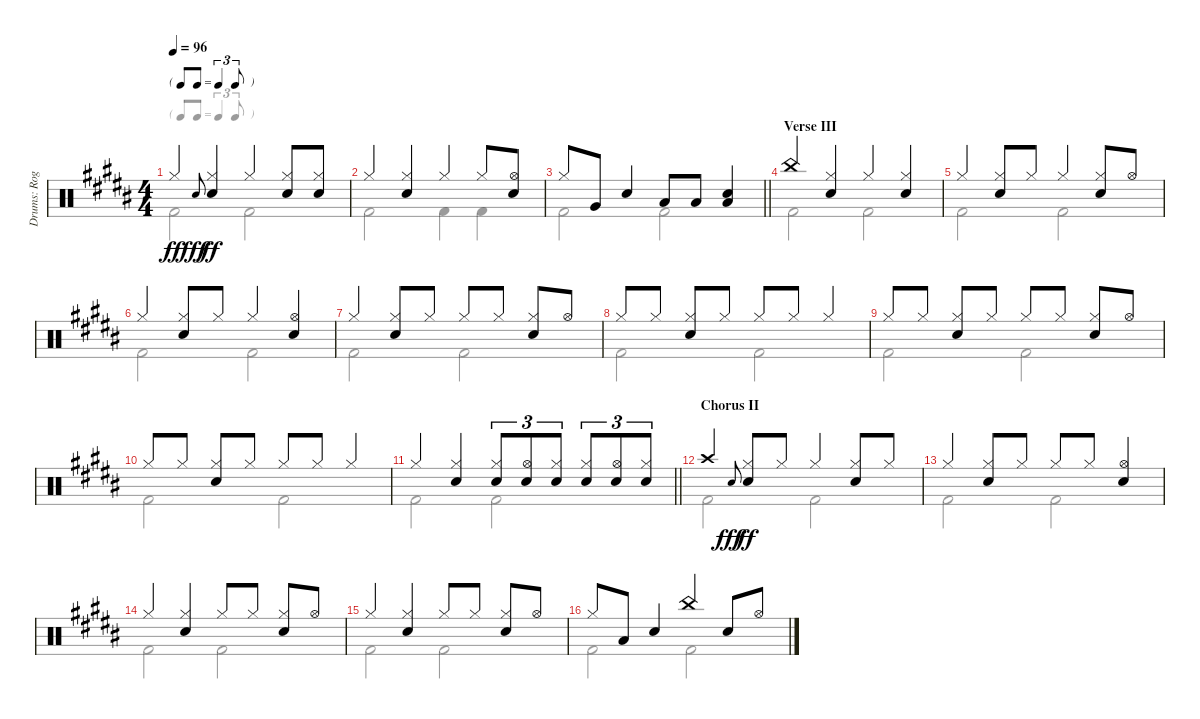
\track ("Drums: Roger" "Drums: Rog") {instrument percussion}
\staff {score}
\articulation defaults
\voice
\ts (4 4)
\tf triplet8th
\tempo 96
\clef neutral
\ks b "Hi-Hat (closed)".4{dy ff} "Electric Snare (hit)".8{gr onbeat dy fff}
("Hi-Hat (closed)" "Snare (hit) 2").4{dy ff} "Hi-Hat (closed)".4 ("Hi-Hat (closed)" "Snare (hit) 2").8 ("Hi-Hat (closed)" "Snare (hit) 2").8 |
"Hi-Hat (closed)".4 ("Hi-Hat (closed)" "Snare (hit) 2").4 "Hi-Hat (closed)".4 "Hi-Hat (closed)".8 ("Hi-Hat (open)" "Snare (hit) 2").8 |
\barLineRight lightlight "Hi-Hat (closed)".8 "Very Low Tom (hit)".8 "Snare (hit) 2".4 "Low Tom (hit)".8 "Low Tom (hit)".8
("Snare (hit) 2" "Low Tom (hit)").4 |
\section ("" "Verse III")
"China (hit)".4 ("Hi-Hat (closed)" "Snare (hit) 2").4 "Hi-Hat (closed)".4 ("Hi-Hat (closed)" "Snare (hit) 2").4 |
"Hi-Hat (closed)".4 ("Hi-Hat (closed)" "Snare (hit) 2").8 "Hi-Hat (closed)".8 "Hi-Hat (closed)".4 ("Hi-Hat (closed)" "Snare (hit) 2").8 "Hi-Hat (open)".8 |
"Hi-Hat (closed)".4 ("Hi-Hat (closed)" "Snare (hit) 2").8 "Hi-Hat (closed)".8 "Hi-Hat (closed)".4 ("Hi-Hat (open)" "Snare (hit) 2").4 |
"Hi-Hat (closed)".4 ("Hi-Hat (closed)" "Snare (hit) 2").8 "Hi-Hat (closed)".8 "Hi-Hat (closed)".8 "Hi-Hat (closed)".8 ("Hi-Hat (closed)" "Snare (hit) 2").8 "Hi-Hat (open)".8 |
"Hi-Hat (closed)".8 "Hi-Hat (closed)".8 ("Hi-Hat (closed)" "Snare (hit) 2").8 "Hi-Hat (closed)".8 "Hi-Hat (closed)".8 "Hi-Hat (closed)".8 "Hi-Hat (closed)".4 |
"Hi-Hat (closed)".8 "Hi-Hat (closed)".8 ("Hi-Hat (closed)" "Snare (hit) 2").8 "Hi-Hat (closed)".8 "Hi-Hat (closed)".8 "Hi-Hat (closed)".8 ("Hi-Hat (closed)" "Snare (hit) 2").8 "Hi-Hat (open)".8 |
"Hi-Hat (closed)".8 "Hi-Hat (closed)".8 ("Hi-Hat (closed)" "Snare (hit) 2").8 "Hi-Hat (closed)".8 "Hi-Hat (closed)".8 "Hi-Hat (closed)".8 "Hi-Hat (closed)".4 |
\barLineRight lightlight "Hi-Hat (closed)".4
("Hi-Hat (closed)" "Snare (hit) 2").4 ("Hi-Hat (closed)" "Snare (hit) 2").8{tu (3 2)} ("Hi-Hat (open)" "Snare (hit) 2").8{tu (3 2)} ("Hi-Hat (closed)" "Snare (hit) 2").8{tu (3 2)} ("Hi-Hat (closed)" "Snare (hit) 2").8{tu (3 2)} ("Hi-Hat (open)" "Snare (hit) 2").8{tu (3 2)} ("Hi-Hat (closed)" "Snare (hit) 2").8{tu (3 2)} |
\section ("" "Chorus II")
"Crash high (hit)".4 "Electric Snare (hit)".8{gr onbeat dy fff} ("Hi-Hat (closed)" "Snare (hit) 2").8{dy ff} "Hi-Hat (closed)".8 "Hi-Hat (closed)".4 ("Hi-Hat (closed)" "Snare (hit) 2").8 "Hi-Hat (closed)".8 |
"Hi-Hat (closed)".4 ("Hi-Hat (closed)" "Snare (hit) 2").8 "Hi-Hat (closed)".8 "Hi-Hat (closed)".8 "Hi-Hat (closed)".8 ("Hi-Hat (open)" "Snare (hit) 2").4 |
"Hi-Hat (closed)".4 ("Hi-Hat (closed)" "Snare (hit) 2").4 "Hi-Hat (closed)".8 "Hi-Hat (closed)".8 ("Hi-Hat (closed)" "Snare (hit) 2").8 "Hi-Hat (open)".8 |
"Hi-Hat (closed)".4 ("Hi-Hat (closed)" "Snare (hit) 2").4 "Hi-Hat (closed)".8 "Hi-Hat (closed)".8 ("Hi-Hat (closed)" "Snare (hit) 2").8 "Hi-Hat (open)".8 |
"Hi-Hat (closed)".8 "Low Tom (hit)".8 "Snare (hit) 2".4 "China (hit)".4 "Snare (hit) 2".8 "Hi-Hat (open)".8
\voice
\clef neutral
\ottava regular
\simile none
\ks b "Kick (hit) 2".2{dy ff} "Kick (hit) 2".2
|
"Kick (hit) 2".2 "Kick (hit) 2".4 "Kick (hit) 2".4 |
\barLineRight lightlight "Kick (hit) 2".2 "Kick (hit) 2".2
|
"Kick (hit) 2".2 "Kick (hit) 2".2 |
"Kick (hit) 2".2 "Kick (hit) 2".2 |
"Kick (hit) 2".2 "Kick (hit) 2".2 |
"Kick (hit) 2".2 "Kick (hit) 2".2 |
"Kick (hit) 2".2 "Kick (hit) 2".2 |
"Kick (hit) 2".2 "Kick (hit) 2".2 |
"Kick (hit) 2".2 "Kick (hit) 2".2 |
\barLineRight lightlight "Kick (hit) 2".2 "Kick (hit) 2".2
|
"Kick (hit) 2".2 "Kick (hit) 2".2 |
"Kick (hit) 2".2 "Kick (hit) 2".2 |
"Kick (hit) 2".2 "Kick (hit) 2".2 |
"Kick (hit) 2".2 "Kick (hit) 2".2 |
"Kick (hit) 2".2 "Kick (hit) 2".2
